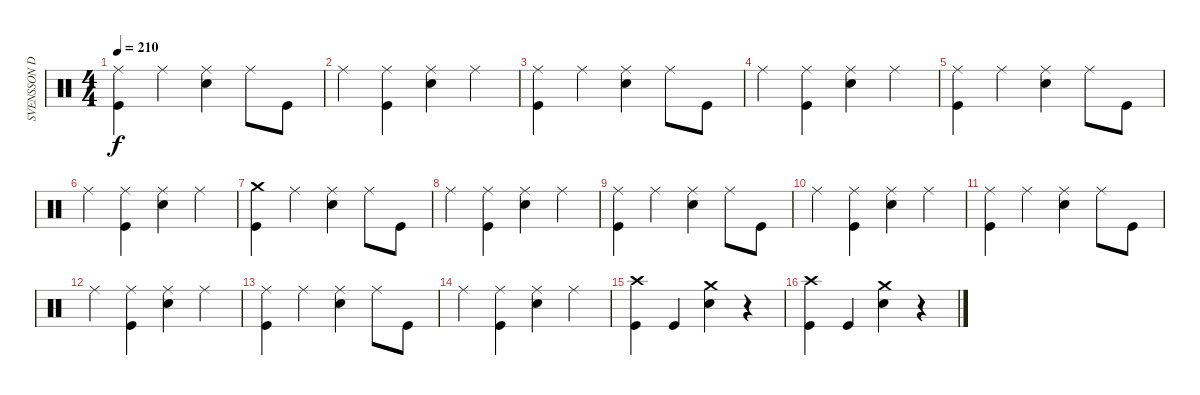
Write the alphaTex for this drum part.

\track ("SVENSSON DRUMS" "SVENSSON D") {instrument percussion}
\staff {score}
\articulation defaults
\ts (4 4)
\tempo 210
\clef neutral
\ks c
("Ride (middle)" "Kick (hit)").4{dy f} "Ride (middle)".4 ("Ride (middle)" "Electric Snare (hit)").4 "Ride (middle)".8 "Kick (hit)".8 |
"Ride (middle)".4 ("Ride (middle)" "Kick (hit)").4 ("Ride (middle)" "Electric Snare (hit)").4 "Ride (middle)".4 |
("Ride (middle)" "Kick (hit)").4 "Ride (middle)".4 ("Ride (middle)" "Electric Snare (hit)").4 "Ride (middle)".8 "Kick (hit)".8 |
"Ride (middle)".4 ("Ride (middle)" "Kick (hit)").4 ("Ride (middle)" "Electric Snare (hit)").4 "Ride (middle)".4 |
("Ride (middle)" "Kick (hit)").4 "Ride (middle)".4 ("Ride (middle)" "Electric Snare (hit)").4 "Ride (middle)".8 "Kick (hit)".8 |
"Ride (middle)".4 ("Ride (middle)" "Kick (hit)").4 ("Ride (middle)" "Electric Snare (hit)").4 "Ride (middle)".4 |
("Crash medium (hit)" "Kick (hit)").4 "Ride (middle)".4 ("Ride (middle)" "Electric Snare (hit)").4 "Ride (middle)".8 "Kick (hit)".8 |
"Ride (middle)".4 ("Ride (middle)" "Kick (hit)").4 ("Ride (middle)" "Electric Snare (hit)").4 "Ride (middle)".4 |
("Ride (middle)" "Kick (hit)").4 "Ride (middle)".4 ("Ride (middle)" "Electric Snare (hit)").4 "Ride (middle)".8 "Kick (hit)".8 |
"Ride (middle)".4 ("Ride (middle)" "Kick (hit)").4 ("Ride (middle)" "Electric Snare (hit)").4 "Ride (middle)".4 |
("Ride (middle)" "Kick (hit)").4 "Ride (middle)".4 ("Ride (middle)" "Electric Snare (hit)").4 "Ride (middle)".8 "Kick (hit)".8 |
"Ride (middle)".4 ("Ride (middle)" "Kick (hit)").4 ("Ride (middle)" "Electric Snare (hit)").4 "Ride (middle)".4 |
("Ride (middle)" "Kick (hit)").4 "Ride (middle)".4 ("Ride (middle)" "Electric Snare (hit)").4 "Ride (middle)".8 "Kick (hit)".8 |
"Ride (middle)".4 ("Ride (middle)" "Kick (hit)").4 ("Ride (middle)" "Electric Snare (hit)").4 "Ride (middle)".4 |
("Crash high (hit)" "Kick (hit)").4 "Kick (hit)".4 ("Crash medium (hit)" "Electric Snare (hit)").4 r.4 |
("Crash high (hit)" "Kick (hit)").4 "Kick (hit)".4 ("Crash medium (hit)" "Electric Snare (hit)").4 r.4
